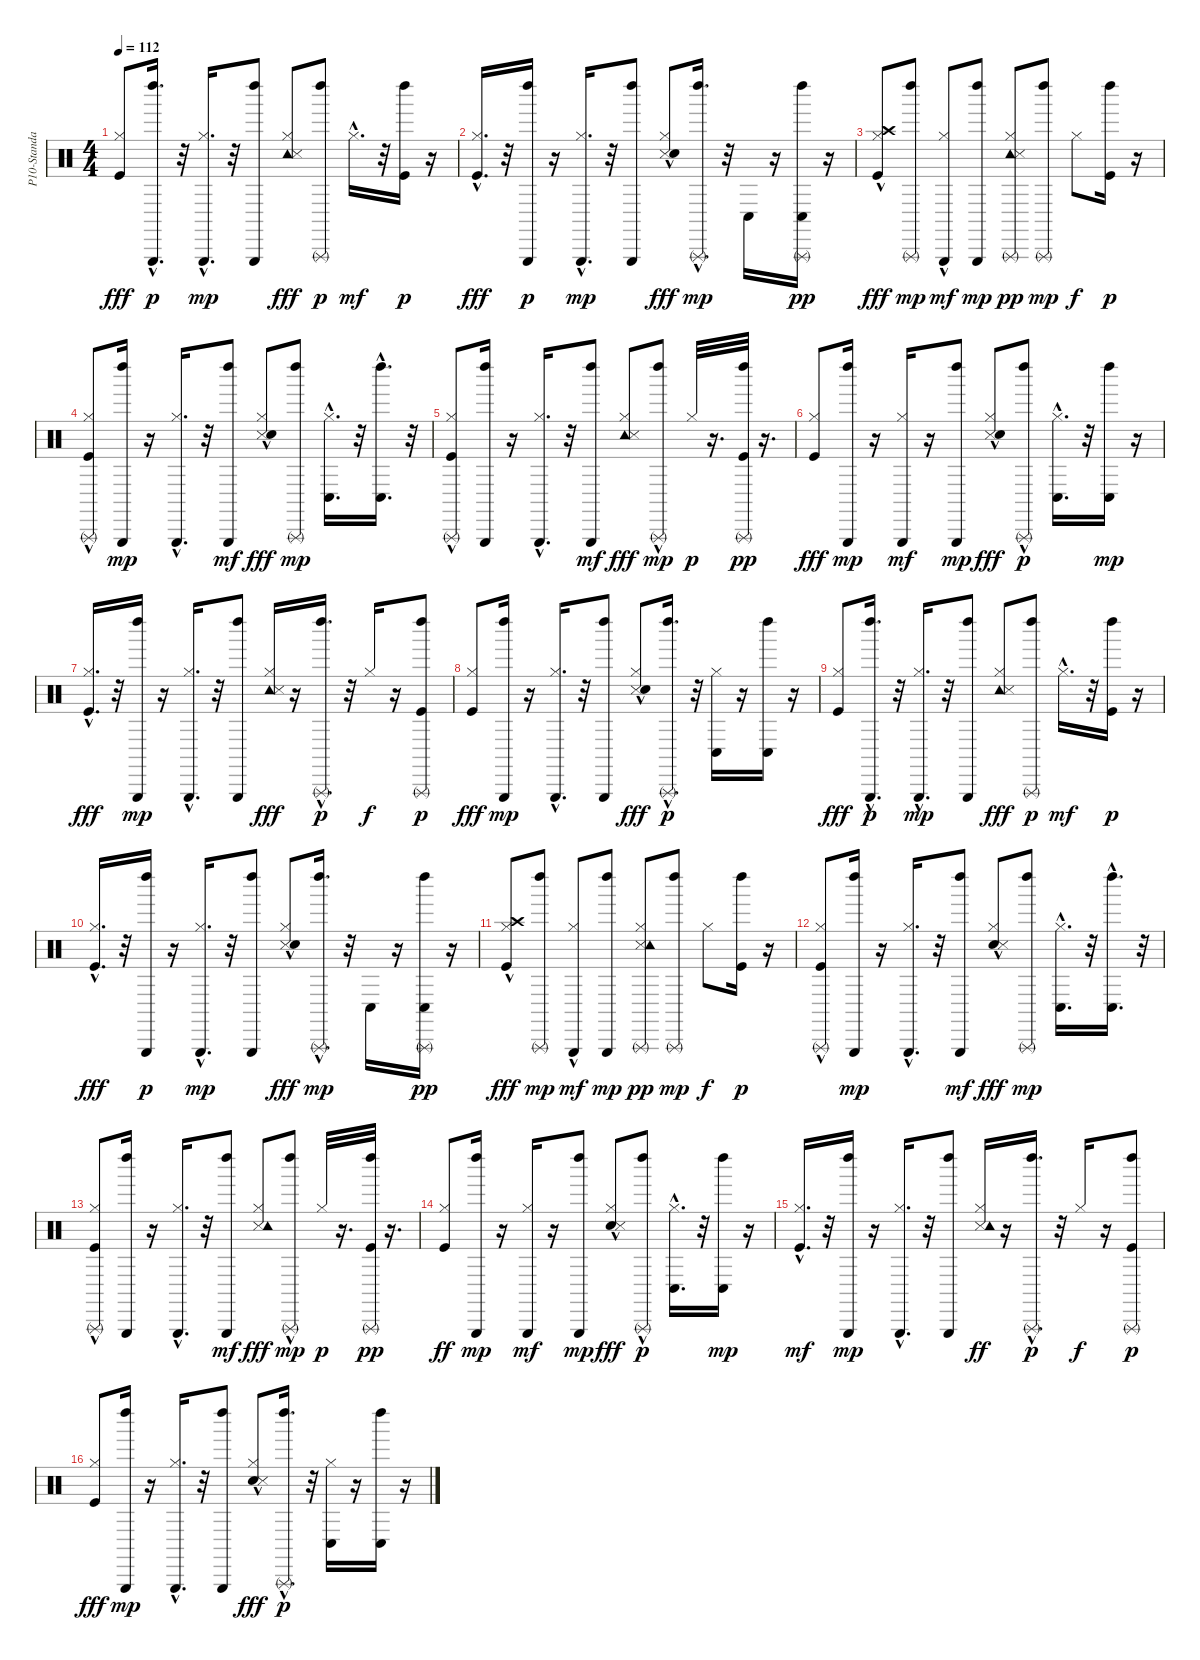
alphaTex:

\track ("P10-Standard Kit" "P10-Standa") {instrument percussion}
\staff {score}
\articulation defaults
\ts (4 4)
\tempo 112
\clef neutral
\ks c
("Hi-Hat (closed)" "Kick (hit)").8{dy fff} ("Triangle (hit)"{hac} "Left Maraca (hit)").16{d dy p} r.32 ("Hi-Hat (closed)" "Triangle (hit)"{hac}).16{d dy mp} r.32 ("Left Maraca (hit)" "Triangle (hit)").8 ("Hi-Hat (closed)" "Tambourine (hit)" "Snare (side stick) 3").8{dy fff} ("Triangle (rnute)" "Left Maraca (hit)").8{dy p} "Hi-Hat (closed)"{hac}.16{d dy mf} r.32 ("Kick (hit)" "Left Maraca (hit)").16{dy p} r.16 |
("Hi-Hat (closed)" "Kick (hit)"{hac}).16{d dy fff} r.32 ("Triangle (hit)" "Left Maraca (hit)").16{dy p} r.16 ("Hi-Hat (closed)" "Triangle (hit)"{hac}).16{d dy mp} r.32 ("Triangle (hit)" "Left Maraca (hit)").8 ("Hi-Hat (closed)" "Snare (side stick) 3"{hac} "Snare (hit)").8{dy fff} ("Triangle (rnute)"{hac} "Left Maraca (hit)").16{d dy mp} r.32 "Conga low (hit)".16 r.16 ("Triangle (rnute)" "Left Maraca (hit)" "Conga low (hit)").16{dy pp} r.16 |
("Hi-Hat (closed)" "Kick (hit)"{hac} "Crash high (hit)").8{dy fff} ("Left Maraca (hit)" "Triangle (rnute)").8{dy mp} ("Hi-Hat (closed)" "Triangle (hit)"{hac}).8{dy mf} ("Triangle (hit)" "Left Maraca (hit)").8{dy mp} ("Hi-Hat (closed)" "Tambourine (hit)" "Snare (side stick) 3" "Triangle (rnute)").8{dy pp} ("Left Maraca (hit)" "Triangle (rnute)").8{dy mp} "Hi-Hat (closed)".8{dy f} ("Kick (hit)" "Left Maraca (hit)").16{dy p} r.16 |
("Hi-Hat (closed)" "Kick (hit)"{hac} "Triangle (rnute)").8 ("Left Maraca (hit)" "Triangle (hit)").16{dy mp} r.16 ("Hi-Hat (closed)"{hac} "Triangle (hit)"{hac}).16{d} r.32 ("Left Maraca (hit)" "Triangle (hit)").8{dy mf} ("Hi-Hat (closed)" "Snare (side stick) 3"{hac} "Snare (hit)").8{dy fff} ("Triangle (rnute)" "Left Maraca (hit)").8{dy mp} ("Hi-Hat (closed)"{hac} "Conga low (hit)").16{d} r.32 ("Left Maraca (hit)" "Conga low (hit)"{hac}).16{d} r.32 |
("Hi-Hat (closed)"{hac} "Kick (hit)"{hac} "Triangle (rnute)").8 ("Left Maraca (hit)" "Triangle (hit)").16 r.16 ("Hi-Hat (closed)"{hac} "Triangle (hit)"{hac}).16{d} r.32 ("Left Maraca (hit)" "Triangle (hit)").8{dy mf} ("Tambourine (hit)" "Hi-Hat (closed)" "Snare (side stick) 3").8{dy fff} ("Triangle (rnute)"{hac} "Left Maraca (hit)").8{dy mp} "Hi-Hat (closed)".32{dy p} r.16{d} ("Kick (hit)" "Left Maraca (hit)" "Triangle (rnute)").32{dy pp} r.16{d} |
("Hi-Hat (closed)" "Kick (hit)").8{dy fff} ("Left Maraca (hit)" "Triangle (hit)").16{dy mp} r.16 ("Hi-Hat (closed)" "Triangle (hit)").16{dy mf} r.16 ("Left Maraca (hit)" "Triangle (hit)").8{dy mp} ("Snare (side stick) 3" "Hi-Hat (closed)"{hac} "Snare (hit)").8{dy fff} ("Left Maraca (hit)" "Triangle (rnute)"{hac}).8{dy p} ("Hi-Hat (closed)"{hac} "Conga low (hit)").16{d} r.32 ("Left Maraca (hit)" "Conga low (hit)").16{dy mp} r.16 |
("Hi-Hat (closed)" "Kick (hit)"{hac}).16{d dy fff} r.32 ("Left Maraca (hit)" "Triangle (hit)").16{dy mp} r.16 ("Hi-Hat (closed)" "Triangle (hit)"{hac}).16{d} r.32 ("Left Maraca (hit)" "Triangle (hit)").8 ("Hi-Hat (closed)" "Tambourine (hit)" "Snare (side stick) 3").16{dy fff} r.16 ("Triangle (rnute)"{hac} "Left Maraca (hit)").16{d dy p} r.32 "Hi-Hat (closed)".16{dy f} r.16 ("Kick (hit)" "Left Maraca (hit)" "Triangle (rnute)").8{dy p} |
("Hi-Hat (closed)" "Kick (hit)").8{dy fff} ("Left Maraca (hit)" "Triangle (hit)").16{dy mp} r.16 ("Hi-Hat (closed)" "Triangle (hit)"{hac}).16{d} r.32 ("Left Maraca (hit)" "Triangle (hit)").8 ("Hi-Hat (closed)" "Snare (side stick) 3" "Snare (hit)"{hac}).8{dy fff} ("Left Maraca (hit)" "Triangle (rnute)"{hac}).16{d dy p} r.32 ("Hi-Hat (closed)" "Conga low (hit)").16 r.16 ("Left Maraca (hit)" "Conga low (hit)").16 r.16 |
("Hi-Hat (closed)" "Kick (hit)").8{dy fff} ("Triangle (hit)"{hac} "Left Maraca (hit)").16{d dy p} r.32 ("Hi-Hat (closed)" "Triangle (hit)"{hac}).16{d dy mp} r.32 ("Left Maraca (hit)" "Triangle (hit)").8 ("Hi-Hat (closed)" "Tambourine (hit)" "Snare (side stick) 3").8{dy fff} ("Triangle (rnute)" "Left Maraca (hit)").8{dy p} "Hi-Hat (closed)"{hac}.16{d dy mf} r.32 ("Kick (hit)" "Left Maraca (hit)").16{dy p} r.16 |
("Hi-Hat (closed)" "Kick (hit)"{hac}).16{d dy fff} r.32 ("Triangle (hit)" "Left Maraca (hit)").16{dy p} r.16 ("Hi-Hat (closed)" "Triangle (hit)"{hac}).16{d dy mp} r.32 ("Triangle (hit)" "Left Maraca (hit)").8 ("Hi-Hat (closed)" "Snare (side stick) 3"{hac} "Snare (hit)").8{dy fff} ("Triangle (rnute)"{hac} "Left Maraca (hit)").16{d dy mp} r.32 "Conga low (hit)".16 r.16 ("Triangle (rnute)" "Left Maraca (hit)" "Conga low (hit)").16{dy pp} r.16 |
("Crash high (hit)" "Kick (hit)"{hac} "Hi-Hat (closed)").8{dy fff} ("Left Maraca (hit)" "Triangle (rnute)").8{dy mp} ("Hi-Hat (closed)" "Triangle (hit)"{hac}).8{dy mf} ("Triangle (hit)" "Left Maraca (hit)").8{dy mp} ("Snare (side stick) 3" "Hi-Hat (closed)" "Tambourine (hit)" "Triangle (rnute)").8{dy pp} ("Left Maraca (hit)" "Triangle (rnute)").8{dy mp} "Hi-Hat (closed)".8{dy f} ("Kick (hit)" "Left Maraca (hit)").16{dy p} r.16 |
("Kick (hit)"{hac} "Hi-Hat (closed)" "Triangle (rnute)").8 ("Left Maraca (hit)" "Triangle (hit)").16{dy mp} r.16 ("Hi-Hat (closed)"{hac} "Triangle (hit)"{hac}).16{d} r.32 ("Left Maraca (hit)" "Triangle (hit)").8{dy mf} ("Snare (hit)" "Hi-Hat (closed)" "Snare (side stick) 3"{hac}).8{dy fff} ("Triangle (rnute)" "Left Maraca (hit)").8{dy mp} ("Hi-Hat (closed)"{hac} "Conga low (hit)").16{d} r.32 ("Left Maraca (hit)" "Conga low (hit)"{hac}).16{d} r.32 |
("Kick (hit)"{hac} "Hi-Hat (closed)"{hac} "Triangle (rnute)").8 ("Left Maraca (hit)" "Triangle (hit)").16 r.16 ("Hi-Hat (closed)"{hac} "Triangle (hit)"{hac}).16{d} r.32 ("Left Maraca (hit)" "Triangle (hit)").8{dy mf} ("Snare (side stick) 3" "Tambourine (hit)" "Hi-Hat (closed)").8{dy fff} ("Triangle (rnute)"{hac} "Left Maraca (hit)").8{dy mp} "Hi-Hat (closed)".32{dy p} r.16{d} ("Kick (hit)" "Left Maraca (hit)" "Triangle (rnute)").32{dy pp} r.16{d} |
("Kick (hit)" "Hi-Hat (closed)").8{dy ff} ("Left Maraca (hit)" "Triangle (hit)").16{dy mp} r.16 ("Hi-Hat (closed)" "Triangle (hit)").16{dy mf} r.16 ("Left Maraca (hit)" "Triangle (hit)").8{dy mp} ("Snare (hit)" "Snare (side stick) 3" "Hi-Hat (closed)"{hac}).8{dy fff} ("Left Maraca (hit)" "Triangle (rnute)"{hac}).8{dy p} ("Hi-Hat (closed)"{hac} "Conga low (hit)").16{d} r.32 ("Left Maraca (hit)" "Conga low (hit)").16{dy mp} r.16 |
("Kick (hit)"{hac} "Hi-Hat (closed)").16{d dy mf} r.32 ("Left Maraca (hit)" "Triangle (hit)").16{dy mp} r.16 ("Hi-Hat (closed)" "Triangle (hit)"{hac}).16{d} r.32 ("Left Maraca (hit)" "Triangle (hit)").8 ("Snare (side stick) 3" "Hi-Hat (closed)" "Tambourine (hit)").16{dy ff} r.16 ("Triangle (rnute)"{hac} "Left Maraca (hit)").16{d dy p} r.32 "Hi-Hat (closed)".16{dy f} r.16 ("Kick (hit)" "Left Maraca (hit)" "Triangle (rnute)").8{dy p} |
("Kick (hit)" "Hi-Hat (closed)").8{dy fff} ("Left Maraca (hit)" "Triangle (hit)").16{dy mp} r.16 ("Hi-Hat (closed)" "Triangle (hit)"{hac}).16{d} r.32 ("Left Maraca (hit)" "Triangle (hit)").8 ("Snare (hit)"{hac} "Hi-Hat (closed)" "Snare (side stick) 3").8{dy fff} ("Left Maraca (hit)" "Triangle (rnute)"{hac}).16{d dy p} r.32 ("Hi-Hat (closed)" "Conga low (hit)").16 r.16 ("Left Maraca (hit)" "Conga low (hit)").16 r.16
